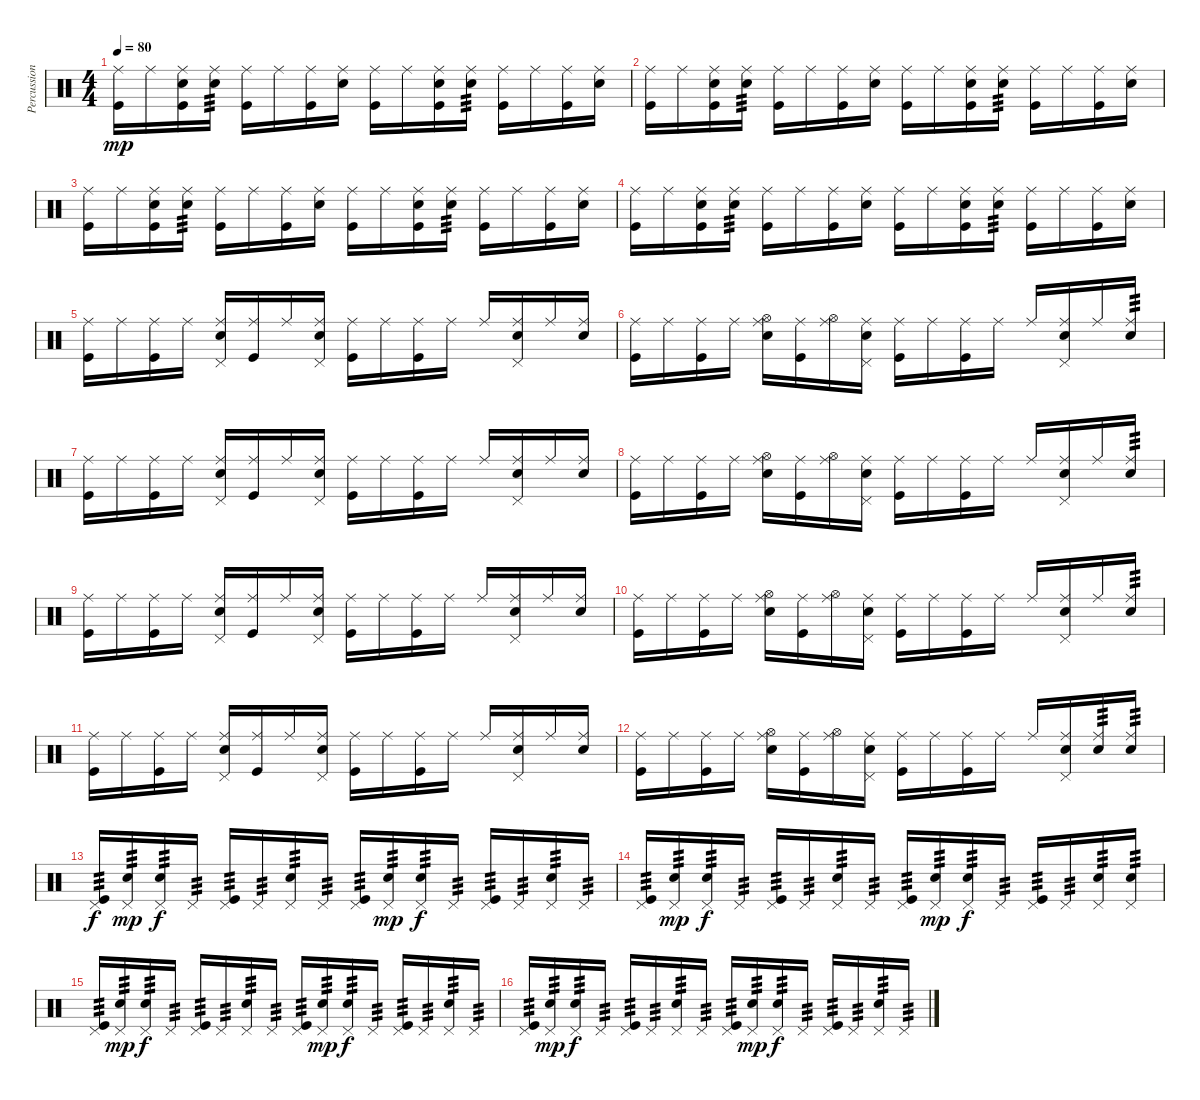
\track ("Percussion" "Percussion") {instrument percussion}
\staff {score}
\articulation defaults
\ts (4 4)
\tempo 80
\clef neutral
\ks c
("Kick (hit)" "Ride (middle)").16{dy mp} "Ride (middle)".16 ("Kick (hit)" "Electric Snare (hit)" "Ride (middle)").16 ("Electric Snare (hit)" "Ride (middle)").16{tp 3} ("Kick (hit)" "Ride (middle)").16 "Ride (middle)".16 ("Kick (hit)" "Ride (middle)").16 ("Hand Clap (hit)" "Ride (middle)").16 ("Kick (hit)" "Ride (middle)").16 "Ride (middle)".16 ("Kick (hit)" "Electric Snare (hit)" "Ride (middle)").16 ("Electric Snare (hit)" "Ride (middle)").16{tp 3} ("Kick (hit)" "Ride (middle)").16 "Ride (middle)".16 ("Kick (hit)" "Ride (middle)").16 ("Hand Clap (hit)" "Ride (middle)").16 |
("Kick (hit)" "Ride (middle)").16 "Ride (middle)".16 ("Kick (hit)" "Electric Snare (hit)" "Ride (middle)").16 ("Electric Snare (hit)" "Ride (middle)").16{tp 3} ("Kick (hit)" "Ride (middle)").16 "Ride (middle)".16 ("Kick (hit)" "Ride (middle)").16 ("Hand Clap (hit)" "Ride (middle)").16 ("Kick (hit)" "Ride (middle)").16 "Ride (middle)".16 ("Kick (hit)" "Electric Snare (hit)" "Ride (middle)").16 ("Electric Snare (hit)" "Ride (middle)").16{tp 3} ("Kick (hit)" "Ride (middle)").16 "Ride (middle)".16 ("Kick (hit)" "Ride (middle)").16 ("Hand Clap (hit)" "Ride (middle)").16 |
("Kick (hit)" "Ride (middle)").16 "Ride (middle)".16 ("Kick (hit)" "Electric Snare (hit)" "Ride (middle)").16 ("Electric Snare (hit)" "Ride (middle)").16{tp 3} ("Kick (hit)" "Ride (middle)").16 "Ride (middle)".16 ("Kick (hit)" "Ride (middle)").16 ("Hand Clap (hit)" "Ride (middle)").16 ("Kick (hit)" "Ride (middle)").16 "Ride (middle)".16 ("Kick (hit)" "Electric Snare (hit)" "Ride (middle)").16 ("Electric Snare (hit)" "Ride (middle)").16{tp 3} ("Kick (hit)" "Ride (middle)").16 "Ride (middle)".16 ("Kick (hit)" "Ride (middle)").16 ("Hand Clap (hit)" "Ride (middle)").16 |
("Kick (hit)" "Ride (middle)").16 "Ride (middle)".16 ("Kick (hit)" "Electric Snare (hit)" "Ride (middle)").16 ("Electric Snare (hit)" "Ride (middle)").16{tp 3} ("Kick (hit)" "Ride (middle)").16 "Ride (middle)".16 ("Kick (hit)" "Ride (middle)").16 ("Hand Clap (hit)" "Ride (middle)").16 ("Kick (hit)" "Ride (middle)").16 "Ride (middle)".16 ("Kick (hit)" "Electric Snare (hit)" "Ride (middle)").16 ("Electric Snare (hit)" "Ride (middle)").16{tp 3} ("Kick (hit)" "Ride (middle)").16 "Ride (middle)".16 ("Kick (hit)" "Ride (middle)").16 ("Hand Clap (hit)" "Ride (middle)").16 |
("Kick (hit)" "Ride (middle)").16 "Ride (middle)".16 ("Kick (hit)" "Ride (middle)").16 "Ride (middle)".16 ("Hand Clap (hit)" "Pedal Hi-Hat (hit)" "Ride (middle)").16 ("Kick (hit)" "Ride (middle)").16 "Ride (middle)".16 ("Hand Clap (hit)" "Pedal Hi-Hat (hit)" "Ride (middle)").16 ("Kick (hit)" "Ride (middle)").16 "Ride (middle)".16 ("Kick (hit)" "Ride (middle)").16 "Ride (middle)".16 "Ride (middle)".16 ("Hand Clap (hit)" "Pedal Hi-Hat (hit)" "Ride (middle)").16 "Ride (middle)".16 ("Hand Clap (hit)" "Ride (middle)").16 |
("Kick (hit)" "Ride (middle)").16 "Ride (middle)".16 ("Kick (hit)" "Ride (middle)").16 "Ride (middle)".16 ("Hand Clap (hit)" "Hi-Hat (open)" "Ride (middle)").16 ("Kick (hit)" "Ride (middle)").16 ("Hi-Hat (open)" "Ride (middle)").16 ("Hand Clap (hit)" "Pedal Hi-Hat (hit)" "Ride (middle)").16 ("Kick (hit)" "Ride (middle)").16 "Ride (middle)".16 ("Kick (hit)" "Ride (middle)").16 "Ride (middle)".16 "Ride (middle)".16 ("Hand Clap (hit)" "Pedal Hi-Hat (hit)" "Ride (middle)").16 "Ride (middle)".16 ("Hand Clap (hit)" "Ride (middle)").16{tp 3} |
("Kick (hit)" "Ride (middle)").16 "Ride (middle)".16 ("Kick (hit)" "Ride (middle)").16 "Ride (middle)".16 ("Hand Clap (hit)" "Pedal Hi-Hat (hit)" "Ride (middle)").16 ("Kick (hit)" "Ride (middle)").16 "Ride (middle)".16 ("Hand Clap (hit)" "Pedal Hi-Hat (hit)" "Ride (middle)").16 ("Kick (hit)" "Ride (middle)").16 "Ride (middle)".16 ("Kick (hit)" "Ride (middle)").16 "Ride (middle)".16 "Ride (middle)".16 ("Hand Clap (hit)" "Pedal Hi-Hat (hit)" "Ride (middle)").16 "Ride (middle)".16 ("Hand Clap (hit)" "Ride (middle)").16 |
("Kick (hit)" "Ride (middle)").16 "Ride (middle)".16 ("Kick (hit)" "Ride (middle)").16 "Ride (middle)".16 ("Hand Clap (hit)" "Hi-Hat (open)" "Ride (middle)").16 ("Kick (hit)" "Ride (middle)").16 ("Hi-Hat (open)" "Ride (middle)").16 ("Hand Clap (hit)" "Pedal Hi-Hat (hit)" "Ride (middle)").16 ("Kick (hit)" "Ride (middle)").16 "Ride (middle)".16 ("Kick (hit)" "Ride (middle)").16 "Ride (middle)".16 "Ride (middle)".16 ("Hand Clap (hit)" "Pedal Hi-Hat (hit)" "Ride (middle)").16 "Ride (middle)".16 ("Hand Clap (hit)" "Ride (middle)").16{tp 3} |
("Kick (hit)" "Ride (middle)").16 "Ride (middle)".16 ("Kick (hit)" "Ride (middle)").16 "Ride (middle)".16 ("Hand Clap (hit)" "Pedal Hi-Hat (hit)" "Ride (middle)").16 ("Kick (hit)" "Ride (middle)").16 "Ride (middle)".16 ("Hand Clap (hit)" "Pedal Hi-Hat (hit)" "Ride (middle)").16 ("Kick (hit)" "Ride (middle)").16 "Ride (middle)".16 ("Kick (hit)" "Ride (middle)").16 "Ride (middle)".16 "Ride (middle)".16 ("Hand Clap (hit)" "Pedal Hi-Hat (hit)" "Ride (middle)").16 "Ride (middle)".16 ("Hand Clap (hit)" "Ride (middle)").16 |
("Kick (hit)" "Ride (middle)").16 "Ride (middle)".16 ("Kick (hit)" "Ride (middle)").16 "Ride (middle)".16 ("Hand Clap (hit)" "Hi-Hat (open)" "Ride (middle)").16 ("Kick (hit)" "Ride (middle)").16 ("Hi-Hat (open)" "Ride (middle)").16 ("Hand Clap (hit)" "Pedal Hi-Hat (hit)" "Ride (middle)").16 ("Kick (hit)" "Ride (middle)").16 "Ride (middle)".16 ("Kick (hit)" "Ride (middle)").16 "Ride (middle)".16 "Ride (middle)".16 ("Hand Clap (hit)" "Pedal Hi-Hat (hit)" "Ride (middle)").16 "Ride (middle)".16 ("Hand Clap (hit)" "Ride (middle)").16{tp 3} |
("Kick (hit)" "Ride (middle)").16 "Ride (middle)".16 ("Kick (hit)" "Ride (middle)").16 "Ride (middle)".16 ("Hand Clap (hit)" "Pedal Hi-Hat (hit)" "Ride (middle)").16 ("Kick (hit)" "Ride (middle)").16 "Ride (middle)".16 ("Hand Clap (hit)" "Pedal Hi-Hat (hit)" "Ride (middle)").16 ("Kick (hit)" "Ride (middle)").16 "Ride (middle)".16 ("Kick (hit)" "Ride (middle)").16 "Ride (middle)".16 "Ride (middle)".16 ("Hand Clap (hit)" "Pedal Hi-Hat (hit)" "Ride (middle)").16 "Ride (middle)".16 ("Hand Clap (hit)" "Ride (middle)").16 |
("Kick (hit)" "Ride (middle)").16 "Ride (middle)".16 ("Kick (hit)" "Ride (middle)").16 "Ride (middle)".16 ("Hand Clap (hit)" "Hi-Hat (open)" "Ride (middle)").16 ("Kick (hit)" "Ride (middle)").16 ("Hi-Hat (open)" "Ride (middle)").16 ("Hand Clap (hit)" "Pedal Hi-Hat (hit)" "Ride (middle)").16 ("Kick (hit)" "Ride (middle)").16 "Ride (middle)".16 ("Kick (hit)" "Ride (middle)").16 "Ride (middle)".16 "Ride (middle)".16 ("Hand Clap (hit)" "Pedal Hi-Hat (hit)" "Ride (middle)").16 ("Hand Clap (hit)" "Ride (middle)").16{tp 3} ("Hand Clap (hit)" "Ride (middle)").16{tp 3} |
("Kick (hit)" "Pedal Hi-Hat (hit)").16{tp 3 dy f} ("Hand Clap (hit)" "Pedal Hi-Hat (hit)").16{tp 3 dy mp} ("Hand Clap (hit)" "Pedal Hi-Hat (hit)").16{tp 3 dy f} "Pedal Hi-Hat (hit)".16{tp 3} ("Kick (hit)" "Pedal Hi-Hat (hit)").16{tp 3} "Pedal Hi-Hat (hit)".16{tp 3} ("Hand Clap (hit)" "Pedal Hi-Hat (hit)").16{tp 3} "Pedal Hi-Hat (hit)".16{tp 3} ("Kick (hit)" "Pedal Hi-Hat (hit)").16{tp 3} ("Hand Clap (hit)" "Pedal Hi-Hat (hit)").16{tp 3 dy mp} ("Hand Clap (hit)" "Pedal Hi-Hat (hit)").16{tp 3 dy f} "Pedal Hi-Hat (hit)".16{tp 3} ("Kick (hit)" "Pedal Hi-Hat (hit)").16{tp 3} "Pedal Hi-Hat (hit)".16{tp 3} ("Hand Clap (hit)" "Pedal Hi-Hat (hit)").16{tp 3} "Pedal Hi-Hat (hit)".16{tp 3} |
("Kick (hit)" "Pedal Hi-Hat (hit)").16{tp 3} ("Hand Clap (hit)" "Pedal Hi-Hat (hit)").16{tp 3 dy mp} ("Hand Clap (hit)" "Pedal Hi-Hat (hit)").16{tp 3 dy f} "Pedal Hi-Hat (hit)".16{tp 3} ("Kick (hit)" "Pedal Hi-Hat (hit)").16{tp 3} "Pedal Hi-Hat (hit)".16{tp 3} ("Hand Clap (hit)" "Pedal Hi-Hat (hit)").16{tp 3} "Pedal Hi-Hat (hit)".16{tp 3} ("Kick (hit)" "Pedal Hi-Hat (hit)").16{tp 3} ("Hand Clap (hit)" "Pedal Hi-Hat (hit)").16{tp 3 dy mp} ("Hand Clap (hit)" "Pedal Hi-Hat (hit)").16{tp 3 dy f} "Pedal Hi-Hat (hit)".16{tp 3} ("Kick (hit)" "Pedal Hi-Hat (hit)").16{tp 3} "Pedal Hi-Hat (hit)".16{tp 3} ("Hand Clap (hit)" "Pedal Hi-Hat (hit)").16{tp 3} ("Electric Snare (hit)" "Pedal Hi-Hat (hit)").16{tp 3} |
("Kick (hit)" "Pedal Hi-Hat (hit)").16{tp 3} ("Hand Clap (hit)" "Pedal Hi-Hat (hit)").16{tp 3 dy mp} ("Hand Clap (hit)" "Pedal Hi-Hat (hit)").16{tp 3 dy f} "Pedal Hi-Hat (hit)".16{tp 3} ("Kick (hit)" "Pedal Hi-Hat (hit)").16{tp 3} "Pedal Hi-Hat (hit)".16{tp 3} ("Hand Clap (hit)" "Pedal Hi-Hat (hit)").16{tp 3} "Pedal Hi-Hat (hit)".16{tp 3} ("Kick (hit)" "Pedal Hi-Hat (hit)").16{tp 3} ("Hand Clap (hit)" "Pedal Hi-Hat (hit)").16{tp 3 dy mp} ("Hand Clap (hit)" "Pedal Hi-Hat (hit)").16{tp 3 dy f} "Pedal Hi-Hat (hit)".16{tp 3} ("Kick (hit)" "Pedal Hi-Hat (hit)").16{tp 3} "Pedal Hi-Hat (hit)".16{tp 3} ("Hand Clap (hit)" "Pedal Hi-Hat (hit)").16{tp 3} "Pedal Hi-Hat (hit)".16{tp 3} |
("Kick (hit)" "Pedal Hi-Hat (hit)").16{tp 3} ("Hand Clap (hit)" "Pedal Hi-Hat (hit)").16{tp 3 dy mp} ("Hand Clap (hit)" "Pedal Hi-Hat (hit)").16{tp 3 dy f} "Pedal Hi-Hat (hit)".16{tp 3} ("Kick (hit)" "Pedal Hi-Hat (hit)").16{tp 3} "Pedal Hi-Hat (hit)".16{tp 3} ("Hand Clap (hit)" "Pedal Hi-Hat (hit)").16{tp 3} "Pedal Hi-Hat (hit)".16{tp 3} ("Kick (hit)" "Pedal Hi-Hat (hit)").16{tp 3} ("Hand Clap (hit)" "Pedal Hi-Hat (hit)").16{tp 3 dy mp} ("Hand Clap (hit)" "Pedal Hi-Hat (hit)").16{tp 3 dy f} "Pedal Hi-Hat (hit)".16{tp 3} ("Kick (hit)" "Pedal Hi-Hat (hit)").16{tp 3} "Pedal Hi-Hat (hit)".16{tp 3} ("Hand Clap (hit)" "Pedal Hi-Hat (hit)").16{tp 3} "Pedal Hi-Hat (hit)".16{tp 3}
